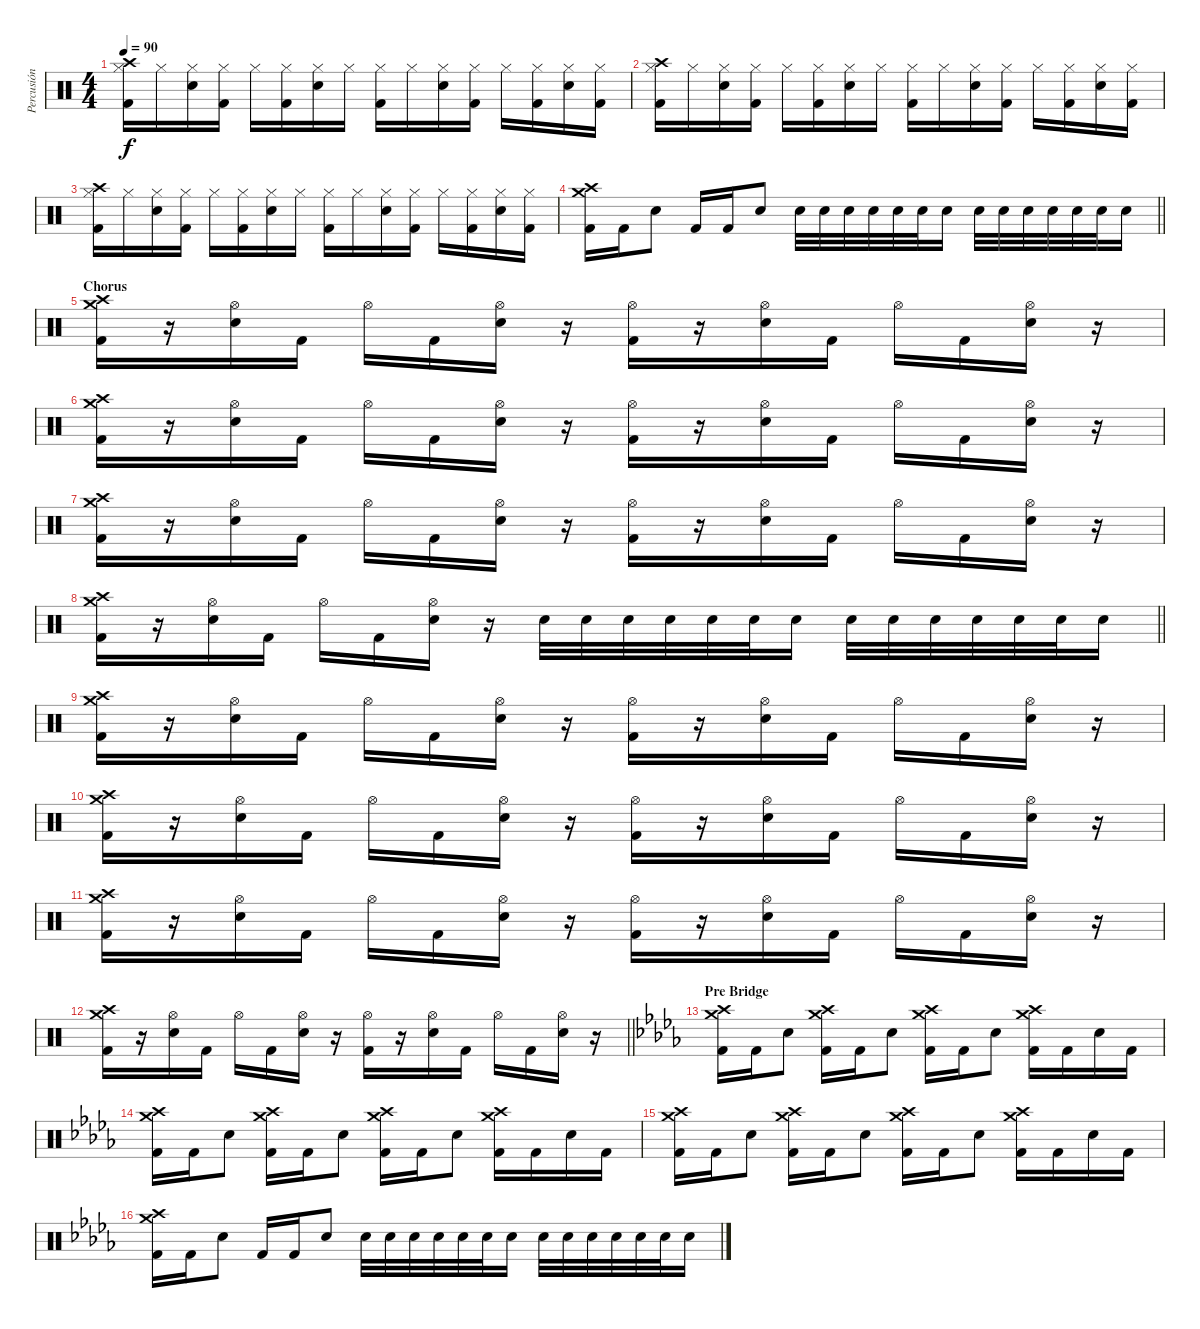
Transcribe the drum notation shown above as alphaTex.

\track ("Percusión" "Percusión") {instrument percussion}
\staff {score}
\articulation defaults
\ts (4 4)
\tempo 90
\clef neutral
\ks c
("Crash high (hit)" "Hi-Hat (closed)" "Kick (hit) 2").16{dy f} "Hi-Hat (closed)".16 ("Hi-Hat (closed)" "Electric Snare (hit)").16 ("Hi-Hat (closed)" "Kick (hit) 2").16 "Hi-Hat (closed)".16 ("Hi-Hat (closed)" "Kick (hit) 2").16 ("Hi-Hat (closed)" "Electric Snare (hit)").16 "Hi-Hat (closed)".16 ("Hi-Hat (closed)" "Kick (hit) 2").16 "Hi-Hat (closed)".16 ("Hi-Hat (closed)" "Electric Snare (hit)").16 ("Hi-Hat (closed)" "Kick (hit) 2").16 "Hi-Hat (closed)".16 ("Hi-Hat (closed)" "Kick (hit) 2").16 ("Hi-Hat (closed)" "Electric Snare (hit)").16 ("Hi-Hat (closed)" "Kick (hit) 2").16 |
("Crash high (hit)" "Hi-Hat (closed)" "Kick (hit) 2").16 "Hi-Hat (closed)".16 ("Hi-Hat (closed)" "Electric Snare (hit)").16 ("Hi-Hat (closed)" "Kick (hit) 2").16 "Hi-Hat (closed)".16 ("Hi-Hat (closed)" "Kick (hit) 2").16 ("Hi-Hat (closed)" "Electric Snare (hit)").16 "Hi-Hat (closed)".16 ("Hi-Hat (closed)" "Kick (hit) 2").16 "Hi-Hat (closed)".16 ("Hi-Hat (closed)" "Electric Snare (hit)").16 ("Hi-Hat (closed)" "Kick (hit) 2").16 "Hi-Hat (closed)".16 ("Hi-Hat (closed)" "Kick (hit) 2").16 ("Hi-Hat (closed)" "Electric Snare (hit)").16 ("Hi-Hat (closed)" "Kick (hit) 2").16 |
("Crash high (hit)" "Hi-Hat (closed)" "Kick (hit) 2").16 "Hi-Hat (closed)".16 ("Hi-Hat (closed)" "Electric Snare (hit)").16 ("Hi-Hat (closed)" "Kick (hit) 2").16 "Hi-Hat (closed)".16 ("Hi-Hat (closed)" "Kick (hit) 2").16 ("Hi-Hat (closed)" "Electric Snare (hit)").16 "Hi-Hat (closed)".16 ("Hi-Hat (closed)" "Kick (hit) 2").16 "Hi-Hat (closed)".16 ("Hi-Hat (closed)" "Electric Snare (hit)").16 ("Hi-Hat (closed)" "Kick (hit) 2").16 "Hi-Hat (closed)".16 ("Hi-Hat (closed)" "Kick (hit) 2").16 ("Hi-Hat (closed)" "Electric Snare (hit)").16 ("Hi-Hat (closed)" "Kick (hit) 2").16 |
\barLineRight lightlight
("Crash high (hit)" "Crash medium (hit)" "Kick (hit) 2").16 "Kick (hit) 2".16 "Snare (hit) 2".8 "Kick (hit) 2".16 "Kick (hit) 2".16 "Snare (hit) 2".8 "Snare (hit) 2".32 "Snare (hit) 2".32 "Snare (hit) 2".32 "Snare (hit) 2".32 "Snare (hit) 2".32 "Snare (hit) 2".32 "Snare (hit) 2".16 "Snare (hit) 2".32 "Snare (hit) 2".32 "Snare (hit) 2".32 "Snare (hit) 2".32 "Snare (hit) 2".32 "Snare (hit) 2".32 "Snare (hit) 2".16 |
\section ("" "Chorus")
("Crash high (hit)" "Crash medium (hit)" "Kick (hit) 2").16 r.16 ("Hi-Hat (open)" "Electric Snare (hit)").16 "Kick (hit) 2".16 "Hi-Hat (open)".16 "Kick (hit) 2".16 ("Hi-Hat (open)" "Electric Snare (hit)").16 r.16 ("Hi-Hat (open)" "Kick (hit) 2").16 r.16 ("Hi-Hat (open)" "Electric Snare (hit)").16 "Kick (hit) 2".16 "Hi-Hat (open)".16 "Kick (hit) 2".16 ("Hi-Hat (open)" "Electric Snare (hit)").16 r.16 |
("Crash high (hit)" "Crash medium (hit)" "Kick (hit) 2").16 r.16 ("Hi-Hat (open)" "Electric Snare (hit)").16 "Kick (hit) 2".16 "Hi-Hat (open)".16 "Kick (hit) 2".16 ("Hi-Hat (open)" "Electric Snare (hit)").16 r.16 ("Hi-Hat (open)" "Kick (hit) 2").16 r.16 ("Hi-Hat (open)" "Electric Snare (hit)").16 "Kick (hit) 2".16 "Hi-Hat (open)".16 "Kick (hit) 2".16 ("Hi-Hat (open)" "Electric Snare (hit)").16 r.16 |
("Crash high (hit)" "Crash medium (hit)" "Kick (hit) 2").16 r.16 ("Hi-Hat (open)" "Electric Snare (hit)").16 "Kick (hit) 2".16 "Hi-Hat (open)".16 "Kick (hit) 2".16 ("Hi-Hat (open)" "Electric Snare (hit)").16 r.16 ("Hi-Hat (open)" "Kick (hit) 2").16 r.16 ("Hi-Hat (open)" "Electric Snare (hit)").16 "Kick (hit) 2".16 "Hi-Hat (open)".16 "Kick (hit) 2".16 ("Hi-Hat (open)" "Electric Snare (hit)").16 r.16 |
\barLineRight lightlight
("Crash high (hit)" "Crash medium (hit)" "Kick (hit) 2").16 r.16 ("Hi-Hat (open)" "Electric Snare (hit)").16 "Kick (hit) 2".16 "Hi-Hat (open)".16 "Kick (hit) 2".16 ("Hi-Hat (open)" "Electric Snare (hit)").16 r.16 "Snare (hit) 2".32 "Snare (hit) 2".32 "Snare (hit) 2".32 "Snare (hit) 2".32 "Snare (hit) 2".32 "Snare (hit) 2".32 "Snare (hit) 2".16 "Snare (hit) 2".32 "Snare (hit) 2".32 "Snare (hit) 2".32 "Snare (hit) 2".32 "Snare (hit) 2".32 "Snare (hit) 2".32 "Snare (hit) 2".16 |
("Crash high (hit)" "Crash medium (hit)" "Kick (hit) 2").16 r.16 ("Hi-Hat (open)" "Electric Snare (hit)").16 "Kick (hit) 2".16 "Hi-Hat (open)".16 "Kick (hit) 2".16 ("Hi-Hat (open)" "Electric Snare (hit)").16 r.16 ("Hi-Hat (open)" "Kick (hit) 2").16 r.16 ("Hi-Hat (open)" "Electric Snare (hit)").16 "Kick (hit) 2".16 "Hi-Hat (open)".16 "Kick (hit) 2".16 ("Hi-Hat (open)" "Electric Snare (hit)").16 r.16 |
("Crash high (hit)" "Crash medium (hit)" "Kick (hit) 2").16 r.16 ("Hi-Hat (open)" "Electric Snare (hit)").16 "Kick (hit) 2".16 "Hi-Hat (open)".16 "Kick (hit) 2".16 ("Hi-Hat (open)" "Electric Snare (hit)").16 r.16 ("Hi-Hat (open)" "Kick (hit) 2").16 r.16 ("Hi-Hat (open)" "Electric Snare (hit)").16 "Kick (hit) 2".16 "Hi-Hat (open)".16 "Kick (hit) 2".16 ("Hi-Hat (open)" "Electric Snare (hit)").16 r.16 |
("Crash high (hit)" "Crash medium (hit)" "Kick (hit) 2").16 r.16 ("Hi-Hat (open)" "Electric Snare (hit)").16 "Kick (hit) 2".16 "Hi-Hat (open)".16 "Kick (hit) 2".16 ("Hi-Hat (open)" "Electric Snare (hit)").16 r.16 ("Hi-Hat (open)" "Kick (hit) 2").16 r.16 ("Hi-Hat (open)" "Electric Snare (hit)").16 "Kick (hit) 2".16 "Hi-Hat (open)".16 "Kick (hit) 2".16 ("Hi-Hat (open)" "Electric Snare (hit)").16 r.16 |
\barLineRight lightlight
("Crash high (hit)" "Crash medium (hit)" "Kick (hit) 2").16 r.16 ("Hi-Hat (open)" "Electric Snare (hit)").16 "Kick (hit) 2".16 "Hi-Hat (open)".16 "Kick (hit) 2".16 ("Hi-Hat (open)" "Electric Snare (hit)").16 r.16 ("Hi-Hat (open)" "Kick (hit) 2").16 r.16 ("Hi-Hat (open)" "Electric Snare (hit)").16 "Kick (hit) 2".16 "Hi-Hat (open)".16 "Kick (hit) 2".16 ("Hi-Hat (open)" "Electric Snare (hit)").16 r.16 |
\section ("" "Pre Bridge")
\ks db
("Crash high (hit)" "Crash medium (hit)" "Kick (hit) 2").16 "Kick (hit) 2".16 "Electric Snare (hit)".8 ("Crash high (hit)" "Crash medium (hit)" "Kick (hit) 2").16 "Kick (hit) 2".16 "Electric Snare (hit)".8 ("Crash high (hit)" "Crash medium (hit)" "Kick (hit) 2").16 "Kick (hit) 2".16 "Electric Snare (hit)".8 ("Crash high (hit)" "Crash medium (hit)" "Kick (hit) 2").16 "Kick (hit) 2".16 "Electric Snare (hit)".16 "Kick (hit) 2".16 |
("Crash high (hit)" "Crash medium (hit)" "Kick (hit) 2").16 "Kick (hit) 2".16 "Electric Snare (hit)".8 ("Crash high (hit)" "Crash medium (hit)" "Kick (hit) 2").16 "Kick (hit) 2".16 "Electric Snare (hit)".8 ("Crash high (hit)" "Crash medium (hit)" "Kick (hit) 2").16 "Kick (hit) 2".16 "Electric Snare (hit)".8 ("Crash high (hit)" "Crash medium (hit)" "Kick (hit) 2").16 "Kick (hit) 2".16 "Electric Snare (hit)".16 "Kick (hit) 2".16 |
("Crash high (hit)" "Crash medium (hit)" "Kick (hit) 2").16 "Kick (hit) 2".16 "Electric Snare (hit)".8 ("Crash high (hit)" "Crash medium (hit)" "Kick (hit) 2").16 "Kick (hit) 2".16 "Electric Snare (hit)".8 ("Crash high (hit)" "Crash medium (hit)" "Kick (hit) 2").16 "Kick (hit) 2".16 "Electric Snare (hit)".8 ("Crash high (hit)" "Crash medium (hit)" "Kick (hit) 2").16 "Kick (hit) 2".16 "Electric Snare (hit)".16 "Kick (hit) 2".16 |
("Crash high (hit)" "Crash medium (hit)" "Kick (hit) 2").16 "Kick (hit) 2".16 "Snare (hit) 2".8 "Kick (hit) 2".16 "Kick (hit) 2".16 "Snare (hit) 2".8 "Snare (hit) 2".32 "Snare (hit) 2".32 "Snare (hit) 2".32 "Snare (hit) 2".32 "Snare (hit) 2".32 "Snare (hit) 2".32 "Snare (hit) 2".16 "Snare (hit) 2".32 "Snare (hit) 2".32 "Snare (hit) 2".32 "Snare (hit) 2".32 "Snare (hit) 2".32 "Snare (hit) 2".32 "Snare (hit) 2".16
